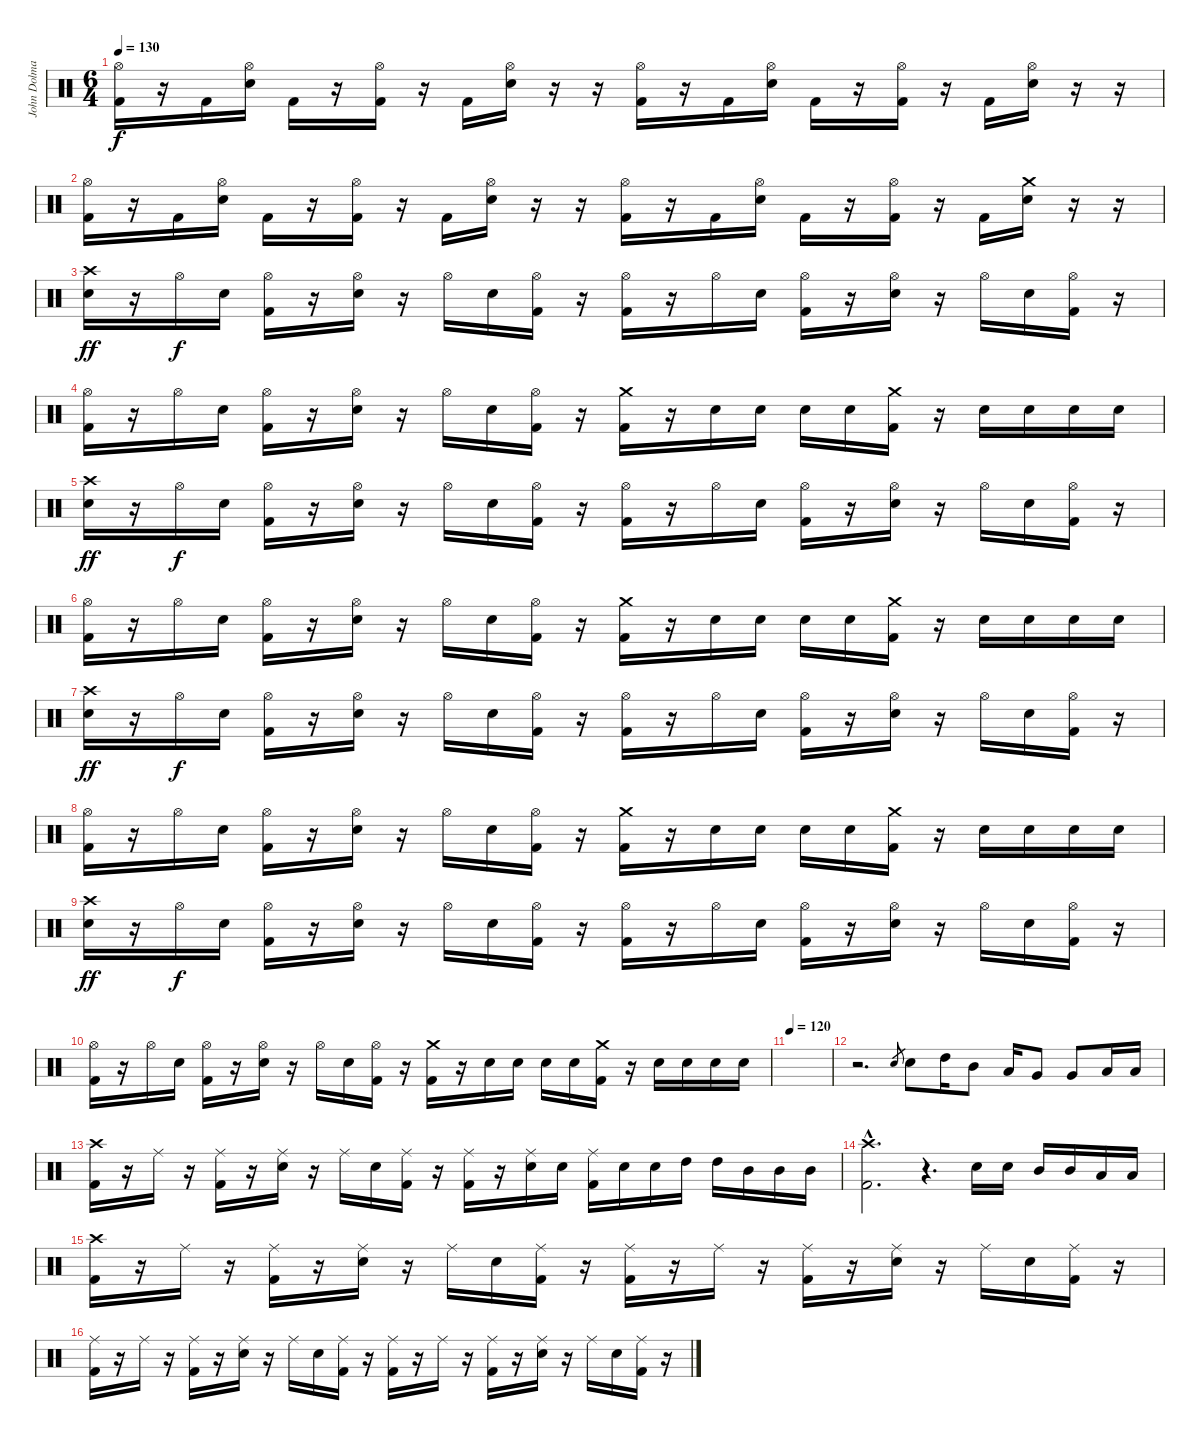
\track ("John Dolmayan" "John Dolma") {instrument percussion}
\staff {score}
\articulation defaults
\ts (6 4)
\tempo 130
\clef neutral
\ks c
("Hi-Hat (open)" "Kick (hit) 2").16{dy f} r.16 "Kick (hit) 2".16 ("Hi-Hat (open)" "Electric Snare (hit)").16 "Kick (hit) 2".16 r.16 ("Hi-Hat (open)" "Kick (hit) 2").16 r.16 "Kick (hit) 2".16 ("Hi-Hat (open)" "Electric Snare (hit)").16 r.16 r.16 ("Hi-Hat (open)" "Kick (hit) 2").16 r.16 "Kick (hit) 2".16 ("Hi-Hat (open)" "Electric Snare (hit)").16 "Kick (hit) 2".16 r.16 ("Hi-Hat (open)" "Kick (hit) 2").16 r.16 "Kick (hit) 2".16 ("Hi-Hat (open)" "Electric Snare (hit)").16 r.16 r.16 |
("Hi-Hat (open)" "Kick (hit) 2").16 r.16 "Kick (hit) 2".16 ("Hi-Hat (open)" "Electric Snare (hit)").16 "Kick (hit) 2".16 r.16 ("Hi-Hat (open)" "Kick (hit) 2").16 r.16 "Kick (hit) 2".16 ("Hi-Hat (open)" "Electric Snare (hit)").16 r.16 r.16 ("Hi-Hat (open)" "Kick (hit) 2").16 r.16 "Kick (hit) 2".16 ("Hi-Hat (open)" "Electric Snare (hit)").16 "Kick (hit) 2".16 r.16 ("Hi-Hat (open)" "Kick (hit) 2").16 r.16 "Kick (hit) 2".16 ("Crash medium (hit)" "Electric Snare (hit)").16 r.16 r.16 |
("Crash high (hit)" "Electric Snare (hit)").16{dy ff} r.16 "Hi-Hat (open)".16{dy f} "Electric Snare (hit)".16 ("Hi-Hat (open)" "Kick (hit) 2").16 r.16 ("Hi-Hat (open)" "Electric Snare (hit)").16 r.16 "Hi-Hat (open)".16 "Electric Snare (hit)".16 ("Hi-Hat (open)" "Kick (hit) 2").16 r.16 ("Hi-Hat (open)" "Kick (hit) 2").16 r.16 "Hi-Hat (open)".16 "Electric Snare (hit)".16 ("Hi-Hat (open)" "Kick (hit) 2").16 r.16 ("Hi-Hat (open)" "Electric Snare (hit)").16 r.16 "Hi-Hat (open)".16 "Electric Snare (hit)".16 ("Hi-Hat (open)" "Kick (hit) 2").16 r.16 |
("Hi-Hat (open)" "Kick (hit) 2").16 r.16 "Hi-Hat (open)".16 "Electric Snare (hit)".16 ("Hi-Hat (open)" "Kick (hit) 2").16 r.16 ("Hi-Hat (open)" "Electric Snare (hit)").16 r.16 "Hi-Hat (open)".16 "Electric Snare (hit)".16 ("Hi-Hat (open)" "Kick (hit) 2").16 r.16 ("Crash medium (hit)" "Kick (hit) 2").16 r.16 "Electric Snare (hit)".16 "Electric Snare (hit)".16 "Electric Snare (hit)".16 "Electric Snare (hit)".16 ("Crash medium (hit)" "Kick (hit) 2").16 r.16 "Electric Snare (hit)".16 "Electric Snare (hit)".16 "Electric Snare (hit)".16 "Electric Snare (hit)".16 |
("Crash high (hit)" "Electric Snare (hit)").16{dy ff} r.16 "Hi-Hat (open)".16{dy f} "Electric Snare (hit)".16 ("Hi-Hat (open)" "Kick (hit) 2").16 r.16 ("Hi-Hat (open)" "Electric Snare (hit)").16 r.16 "Hi-Hat (open)".16 "Electric Snare (hit)".16 ("Hi-Hat (open)" "Kick (hit) 2").16 r.16 ("Hi-Hat (open)" "Kick (hit) 2").16 r.16 "Hi-Hat (open)".16 "Electric Snare (hit)".16 ("Hi-Hat (open)" "Kick (hit) 2").16 r.16 ("Hi-Hat (open)" "Electric Snare (hit)").16 r.16 "Hi-Hat (open)".16 "Electric Snare (hit)".16 ("Hi-Hat (open)" "Kick (hit) 2").16 r.16 |
("Hi-Hat (open)" "Kick (hit) 2").16 r.16 "Hi-Hat (open)".16 "Electric Snare (hit)".16 ("Hi-Hat (open)" "Kick (hit) 2").16 r.16 ("Hi-Hat (open)" "Electric Snare (hit)").16 r.16 "Hi-Hat (open)".16 "Electric Snare (hit)".16 ("Hi-Hat (open)" "Kick (hit) 2").16 r.16 ("Crash medium (hit)" "Kick (hit) 2").16 r.16 "Electric Snare (hit)".16 "Electric Snare (hit)".16 "Electric Snare (hit)".16 "Electric Snare (hit)".16 ("Crash medium (hit)" "Kick (hit) 2").16 r.16 "Electric Snare (hit)".16 "Electric Snare (hit)".16 "Electric Snare (hit)".16 "Electric Snare (hit)".16 |
("Crash high (hit)" "Electric Snare (hit)").16{dy ff} r.16 "Hi-Hat (open)".16{dy f} "Electric Snare (hit)".16 ("Hi-Hat (open)" "Kick (hit) 2").16 r.16 ("Hi-Hat (open)" "Electric Snare (hit)").16 r.16 "Hi-Hat (open)".16 "Electric Snare (hit)".16 ("Hi-Hat (open)" "Kick (hit) 2").16 r.16 ("Hi-Hat (open)" "Kick (hit) 2").16 r.16 "Hi-Hat (open)".16 "Electric Snare (hit)".16 ("Hi-Hat (open)" "Kick (hit) 2").16 r.16 ("Hi-Hat (open)" "Electric Snare (hit)").16 r.16 "Hi-Hat (open)".16 "Electric Snare (hit)".16 ("Hi-Hat (open)" "Kick (hit) 2").16 r.16 |
("Hi-Hat (open)" "Kick (hit) 2").16 r.16 "Hi-Hat (open)".16 "Electric Snare (hit)".16 ("Hi-Hat (open)" "Kick (hit) 2").16 r.16 ("Hi-Hat (open)" "Electric Snare (hit)").16 r.16 "Hi-Hat (open)".16 "Electric Snare (hit)".16 ("Hi-Hat (open)" "Kick (hit) 2").16 r.16 ("Crash medium (hit)" "Kick (hit) 2").16 r.16 "Electric Snare (hit)".16 "Electric Snare (hit)".16 "Electric Snare (hit)".16 "Electric Snare (hit)".16 ("Crash medium (hit)" "Kick (hit) 2").16 r.16 "Electric Snare (hit)".16 "Electric Snare (hit)".16 "Electric Snare (hit)".16 "Electric Snare (hit)".16 |
("Crash high (hit)" "Electric Snare (hit)").16{dy ff} r.16 "Hi-Hat (open)".16{dy f} "Electric Snare (hit)".16 ("Hi-Hat (open)" "Kick (hit) 2").16 r.16 ("Hi-Hat (open)" "Electric Snare (hit)").16 r.16 "Hi-Hat (open)".16 "Electric Snare (hit)".16 ("Hi-Hat (open)" "Kick (hit) 2").16 r.16 ("Hi-Hat (open)" "Kick (hit) 2").16 r.16 "Hi-Hat (open)".16 "Electric Snare (hit)".16 ("Hi-Hat (open)" "Kick (hit) 2").16 r.16 ("Hi-Hat (open)" "Electric Snare (hit)").16 r.16 "Hi-Hat (open)".16 "Electric Snare (hit)".16 ("Hi-Hat (open)" "Kick (hit) 2").16 r.16 |
("Hi-Hat (open)" "Kick (hit) 2").16 r.16 "Hi-Hat (open)".16 "Electric Snare (hit)".16 ("Hi-Hat (open)" "Kick (hit) 2").16 r.16 ("Hi-Hat (open)" "Electric Snare (hit)").16 r.16 "Hi-Hat (open)".16 "Electric Snare (hit)".16 ("Hi-Hat (open)" "Kick (hit) 2").16 r.16 ("Crash medium (hit)" "Kick (hit) 2").16 r.16 "Electric Snare (hit)".16 "Electric Snare (hit)".16 "Electric Snare (hit)".16 "Electric Snare (hit)".16 ("Crash medium (hit)" "Kick (hit) 2").16 r.16 "Electric Snare (hit)".16 "Electric Snare (hit)".16 "Electric Snare (hit)".16 "Electric Snare (hit)".16 |
\tempo 120
|
r.2{d} "Electric Snare (hit)".8{gr} "Electric Snare (hit)".8 "High Tom (hit)".16 "Mid Tom (hit)".8 "Low Tom (hit)".16 "Very Low Tom (hit)".8 "Very Low Tom (hit)".8 "Low Floor Tom (hit)".16 "Low Floor Tom (hit)".16 |
("Crash high (hit)" "Kick (hit) 2").16 r.16 "Ride (middle)".16 r.16 ("Ride (middle)" "Kick (hit) 2").16 r.16 ("Ride (middle)" "Electric Snare (hit)").16 r.16 "Ride (middle)".16 "Electric Snare (hit)".16 ("Ride (middle)" "Kick (hit) 2").16 r.16 ("Ride (middle)" "Kick (hit) 2").16 r.16 ("Ride (middle)" "Electric Snare (hit)").16 "Electric Snare (hit)".16 ("Ride (middle)" "Kick (hit) 2").16 "Electric Snare (hit)".16 "Electric Snare (hit)".16 "High Tom (hit)".16 "High Tom (hit)".16 "Mid Tom (hit)".16 "Mid Tom (hit)".16 "Mid Tom (hit)".16 |
("Crash high (hit)"{hac} "Kick (hit) 2"{hac}).2{d} r.4{d} "Electric Snare (hit)".16 "Electric Snare (hit)".16 "Mid Tom (hit)".16 "Mid Tom (hit)".16 "Low Tom (hit)".16 "Low Tom (hit)".16 |
("Crash high (hit)" "Kick (hit) 2").16 r.16 "Ride (middle)".16 r.16 ("Ride (middle)" "Kick (hit) 2").16 r.16 ("Ride (middle)" "Electric Snare (hit)").16 r.16 "Ride (middle)".16 "Electric Snare (hit)".16 ("Ride (middle)" "Kick (hit) 2").16 r.16 ("Ride (middle)" "Kick (hit) 2").16 r.16 "Ride (middle)".16 r.16 ("Ride (middle)" "Kick (hit) 2").16 r.16 ("Ride (middle)" "Electric Snare (hit)").16 r.16 "Ride (middle)".16 "Electric Snare (hit)".16 ("Ride (middle)" "Kick (hit) 2").16 r.16 |
("Ride (middle)" "Kick (hit) 2").16 r.16 "Ride (middle)".16 r.16 ("Ride (middle)" "Kick (hit) 2").16 r.16 ("Ride (middle)" "Electric Snare (hit)").16 r.16 "Ride (middle)".16 "Electric Snare (hit)".16 ("Ride (middle)" "Kick (hit) 2").16 r.16 ("Ride (middle)" "Kick (hit) 2").16 r.16 "Ride (middle)".16 r.16 ("Ride (middle)" "Kick (hit) 2").16 r.16 ("Ride (middle)" "Electric Snare (hit)").16 r.16 "Ride (middle)".16 "Electric Snare (hit)".16 ("Ride (middle)" "Kick (hit) 2").16 r.16
